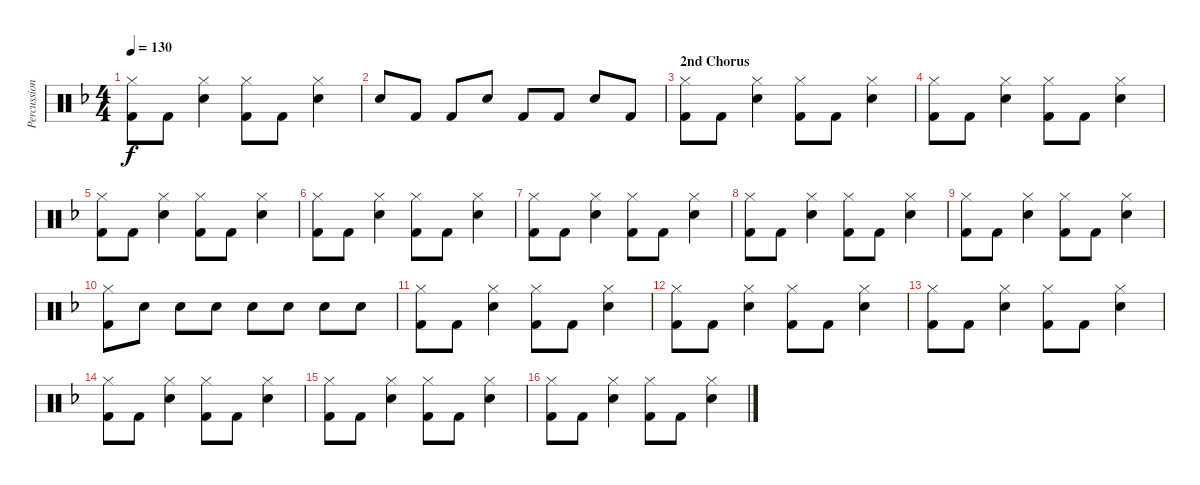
\track ("Percussion" "Percussion") {instrument percussion}
\staff {score}
\articulation defaults
\ts (4 4)
\tempo 130
\clef neutral
\ks dminor
("Hi-Hat (closed)" "Kick (hit) 2").8{dy f} "Kick (hit) 2".8 ("Hi-Hat (closed)" "Snare (hit) 2").4 ("Hi-Hat (closed)" "Kick (hit) 2").8 "Kick (hit) 2".8 ("Hi-Hat (closed)" "Snare (hit) 2").4 |
"Snare (hit) 2".8 "Kick (hit) 2".8 "Kick (hit) 2".8 "Snare (hit) 2".8 "Kick (hit) 2".8 "Kick (hit) 2".8 "Snare (hit) 2".8 "Kick (hit) 2".8 |
\section ("" "2nd Chorus")
("Hi-Hat (closed)" "Kick (hit) 2").8 "Kick (hit) 2".8 ("Hi-Hat (closed)" "Snare (hit) 2").4 ("Hi-Hat (closed)" "Kick (hit) 2").8 "Kick (hit) 2".8 ("Hi-Hat (closed)" "Snare (hit) 2").4 |
("Hi-Hat (closed)" "Kick (hit) 2").8 "Kick (hit) 2".8 ("Hi-Hat (closed)" "Snare (hit) 2").4 ("Hi-Hat (closed)" "Kick (hit) 2").8 "Kick (hit) 2".8 ("Hi-Hat (closed)" "Snare (hit) 2").4 |
("Hi-Hat (closed)" "Kick (hit) 2").8 "Kick (hit) 2".8 ("Hi-Hat (closed)" "Snare (hit) 2").4 ("Hi-Hat (closed)" "Kick (hit) 2").8 "Kick (hit) 2".8 ("Hi-Hat (closed)" "Snare (hit) 2").4 |
("Hi-Hat (closed)" "Kick (hit) 2").8 "Kick (hit) 2".8 ("Hi-Hat (closed)" "Snare (hit) 2").4 ("Hi-Hat (closed)" "Kick (hit) 2").8 "Kick (hit) 2".8 ("Hi-Hat (closed)" "Snare (hit) 2").4 |
("Hi-Hat (closed)" "Kick (hit) 2").8 "Kick (hit) 2".8 ("Hi-Hat (closed)" "Snare (hit) 2").4 ("Hi-Hat (closed)" "Kick (hit) 2").8 "Kick (hit) 2".8 ("Hi-Hat (closed)" "Snare (hit) 2").4 |
("Hi-Hat (closed)" "Kick (hit) 2").8 "Kick (hit) 2".8 ("Hi-Hat (closed)" "Snare (hit) 2").4 ("Hi-Hat (closed)" "Kick (hit) 2").8 "Kick (hit) 2".8 ("Hi-Hat (closed)" "Snare (hit) 2").4 |
("Hi-Hat (closed)" "Kick (hit) 2").8 "Kick (hit) 2".8 ("Hi-Hat (closed)" "Snare (hit) 2").4 ("Hi-Hat (closed)" "Kick (hit) 2").8 "Kick (hit) 2".8 ("Hi-Hat (closed)" "Snare (hit) 2").4 |
("Hi-Hat (closed)" "Kick (hit) 2").8 "Snare (hit) 2".8 "Snare (hit) 2".8 "Snare (hit) 2".8 "Snare (hit) 2".8 "Snare (hit) 2".8 "Snare (hit) 2".8 "Snare (hit) 2".8 |
("Hi-Hat (closed)" "Kick (hit) 2").8 "Kick (hit) 2".8 ("Hi-Hat (closed)" "Snare (hit) 2").4 ("Hi-Hat (closed)" "Kick (hit) 2").8 "Kick (hit) 2".8 ("Hi-Hat (closed)" "Snare (hit) 2").4 |
("Hi-Hat (closed)" "Kick (hit) 2").8 "Kick (hit) 2".8 ("Hi-Hat (closed)" "Snare (hit) 2").4 ("Hi-Hat (closed)" "Kick (hit) 2").8 "Kick (hit) 2".8 ("Hi-Hat (closed)" "Snare (hit) 2").4 |
("Hi-Hat (closed)" "Kick (hit) 2").8 "Kick (hit) 2".8 ("Hi-Hat (closed)" "Snare (hit) 2").4 ("Hi-Hat (closed)" "Kick (hit) 2").8 "Kick (hit) 2".8 ("Hi-Hat (closed)" "Snare (hit) 2").4 |
("Hi-Hat (closed)" "Kick (hit) 2").8 "Kick (hit) 2".8 ("Hi-Hat (closed)" "Snare (hit) 2").4 ("Hi-Hat (closed)" "Kick (hit) 2").8 "Kick (hit) 2".8 ("Hi-Hat (closed)" "Snare (hit) 2").4 |
("Hi-Hat (closed)" "Kick (hit) 2").8 "Kick (hit) 2".8 ("Hi-Hat (closed)" "Snare (hit) 2").4 ("Hi-Hat (closed)" "Kick (hit) 2").8 "Kick (hit) 2".8 ("Hi-Hat (closed)" "Snare (hit) 2").4 |
("Hi-Hat (closed)" "Kick (hit) 2").8 "Kick (hit) 2".8 ("Hi-Hat (closed)" "Snare (hit) 2").4 ("Hi-Hat (closed)" "Kick (hit) 2").8 "Kick (hit) 2".8 ("Hi-Hat (closed)" "Snare (hit) 2").4
